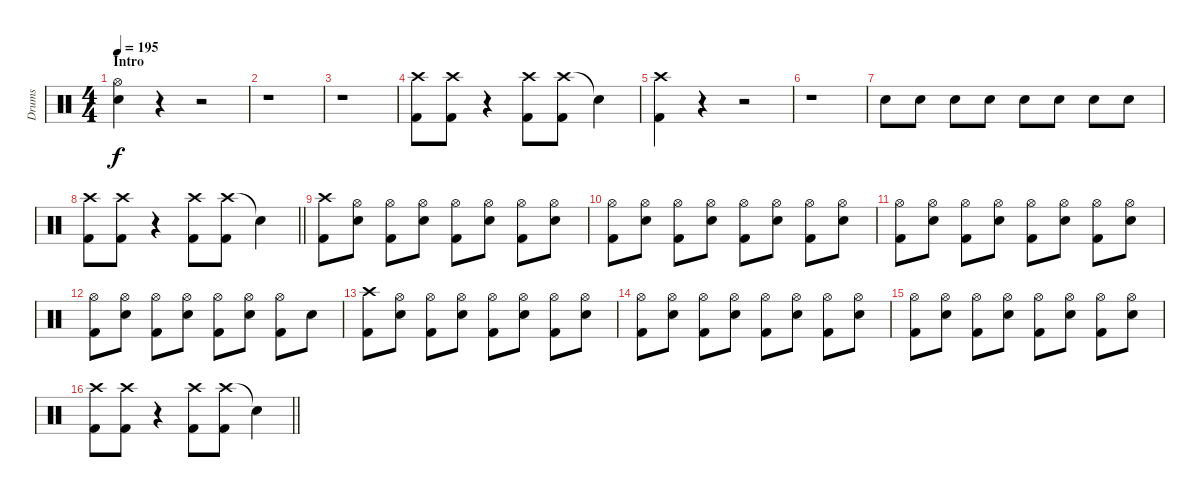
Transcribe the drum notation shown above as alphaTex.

\track ("Drums" "Drums") {instrument percussion}
\staff {score}
\articulation defaults
\ts (4 4)
\section ("" "Intro")
\tempo 195
\clef neutral
\ks c
("Hi-Hat (open)" "Snare (hit) 2").4{dy f} r.4{volume 0} r.2 |
r.1{volume 13} |
r.1 |
("Crash high (hit)" "Kick (hit) 2").8 ("Crash high (hit)" "Kick (hit) 2").8 r.4 ("Crash high (hit)" "Kick (hit) 2").8 ("Crash high (hit)" "Kick (hit) 2").8 "Snare (hit)"{t}.4 |
("Crash high (hit)" "Kick (hit) 2").4 r.4{volume 0} r.2 |
r.1{volume 12} |
"Snare (hit) 2".8 "Snare (hit) 2".8{volume 8} "Snare (hit) 2".8{volume 13} "Snare (hit) 2".8 "Snare (hit) 2".8 "Snare (hit) 2".8 "Snare (hit) 2".8 "Snare (hit) 2".8 |
\barLineRight lightlight
("Crash high (hit)" "Kick (hit) 2").8 ("Crash high (hit)" "Kick (hit) 2").8 r.4 ("Crash high (hit)" "Kick (hit) 2").8 ("Crash high (hit)" "Kick (hit) 2").8 "Snare (hit)"{t}.4 |
("Crash high (hit)" "Kick (hit) 2").8 ("Hi-Hat (open)" "Snare (hit) 2").8 ("Hi-Hat (open)" "Kick (hit) 2").8 ("Hi-Hat (open)" "Snare (hit) 2").8 ("Hi-Hat (open)" "Kick (hit) 2").8 ("Hi-Hat (open)" "Snare (hit) 2").8 ("Hi-Hat (open)" "Kick (hit) 2").8 ("Hi-Hat (open)" "Snare (hit) 2").8 |
("Hi-Hat (open)" "Kick (hit) 2").8 ("Hi-Hat (open)" "Snare (hit) 2").8 ("Hi-Hat (open)" "Kick (hit) 2").8 ("Hi-Hat (open)" "Snare (hit) 2").8 ("Hi-Hat (open)" "Kick (hit) 2").8 ("Hi-Hat (open)" "Snare (hit) 2").8 ("Hi-Hat (open)" "Kick (hit) 2").8 ("Hi-Hat (open)" "Snare (hit) 2").8 |
("Hi-Hat (open)" "Kick (hit) 2").8 ("Hi-Hat (open)" "Snare (hit) 2").8 ("Hi-Hat (open)" "Kick (hit) 2").8 ("Hi-Hat (open)" "Snare (hit) 2").8 ("Hi-Hat (open)" "Kick (hit) 2").8 ("Hi-Hat (open)" "Snare (hit) 2").8 ("Hi-Hat (open)" "Kick (hit) 2").8 ("Hi-Hat (open)" "Snare (hit) 2").8 |
("Hi-Hat (open)" "Kick (hit) 2").8 ("Hi-Hat (open)" "Snare (hit) 2").8 ("Hi-Hat (open)" "Kick (hit) 2").8 ("Hi-Hat (open)" "Snare (hit) 2").8 ("Hi-Hat (open)" "Kick (hit) 2").8 ("Hi-Hat (open)" "Snare (hit) 2").8 ("Hi-Hat (open)" "Kick (hit) 2").8 "Snare (hit) 2".8 |
("Crash high (hit)" "Kick (hit) 2").8 ("Hi-Hat (open)" "Snare (hit) 2").8 ("Hi-Hat (open)" "Kick (hit) 2").8 ("Hi-Hat (open)" "Snare (hit) 2").8 ("Hi-Hat (open)" "Kick (hit) 2").8 ("Hi-Hat (open)" "Snare (hit) 2").8 ("Hi-Hat (open)" "Kick (hit) 2").8 ("Hi-Hat (open)" "Snare (hit) 2").8 |
("Hi-Hat (open)" "Kick (hit) 2").8 ("Hi-Hat (open)" "Snare (hit) 2").8 ("Hi-Hat (open)" "Kick (hit) 2").8 ("Hi-Hat (open)" "Snare (hit) 2").8 ("Hi-Hat (open)" "Kick (hit) 2").8 ("Hi-Hat (open)" "Snare (hit) 2").8 ("Hi-Hat (open)" "Kick (hit) 2").8 ("Hi-Hat (open)" "Snare (hit) 2").8 |
("Hi-Hat (open)" "Kick (hit) 2").8 ("Hi-Hat (open)" "Snare (hit) 2").8 ("Hi-Hat (open)" "Kick (hit) 2").8 ("Hi-Hat (open)" "Snare (hit) 2").8 ("Hi-Hat (open)" "Kick (hit) 2").8 ("Hi-Hat (open)" "Snare (hit) 2").8 ("Hi-Hat (open)" "Kick (hit) 2").8 ("Hi-Hat (open)" "Snare (hit) 2").8 |
\barLineRight lightlight
("Crash high (hit)" "Kick (hit) 2").8 ("Crash high (hit)" "Kick (hit) 2").8 r.4 ("Crash high (hit)" "Kick (hit) 2").8 ("Crash high (hit)" "Kick (hit) 2").8 "Snare (hit)"{t}.4
